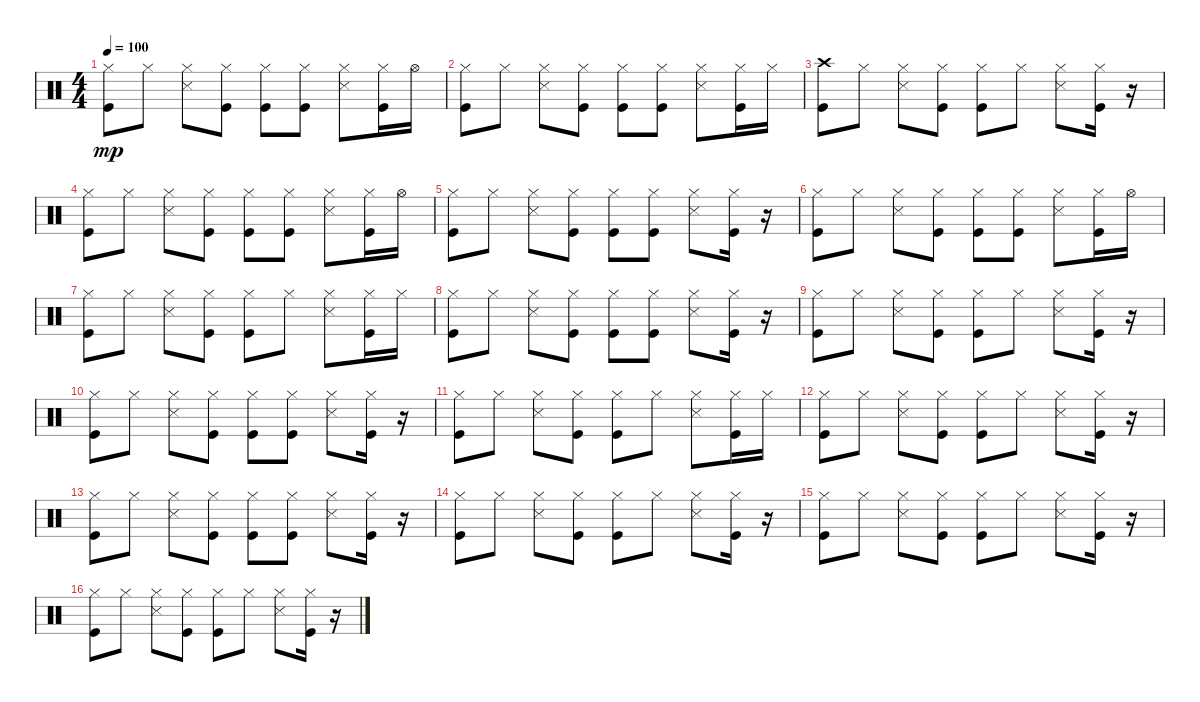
\track "" {instrument percussion}
\staff {score}
\articulation defaults
\ts (4 4)
\tempo 100
\clef neutral
\ks c
("Kick (hit)" "Hi-Hat (closed)").8{dy mp} "Hi-Hat (closed)".8 ("Snare (side stick) 3" "Hi-Hat (closed)").8 ("Kick (hit)" "Hi-Hat (closed)").8 ("Kick (hit)" "Hi-Hat (closed)").8 ("Kick (hit)" "Hi-Hat (closed)").8 ("Snare (side stick) 3" "Hi-Hat (closed)").8 ("Kick (hit)" "Hi-Hat (closed)").16 "Hi-Hat (open)".16 |
("Kick (hit)" "Hi-Hat (closed)").8 "Hi-Hat (closed)".8 ("Snare (side stick) 3" "Hi-Hat (closed)").8 ("Kick (hit)" "Hi-Hat (closed)").8 ("Kick (hit)" "Hi-Hat (closed)").8 ("Kick (hit)" "Hi-Hat (closed)").8 ("Snare (side stick) 3" "Hi-Hat (closed)").8 ("Kick (hit)" "Hi-Hat (closed)").16 "Hi-Hat (closed)".16 |
("Kick (hit)" "Crash high (hit)").8 "Hi-Hat (closed)".8 ("Snare (side stick) 3" "Hi-Hat (closed)").8 ("Kick (hit)" "Hi-Hat (closed)").8 ("Kick (hit)" "Hi-Hat (closed)").8 "Hi-Hat (closed)".8 ("Snare (side stick) 3" "Hi-Hat (closed)").8 ("Kick (hit)" "Hi-Hat (closed)").16 r.16 |
("Kick (hit)" "Hi-Hat (closed)").8 "Hi-Hat (closed)".8 ("Snare (side stick) 3" "Hi-Hat (closed)").8 ("Kick (hit)" "Hi-Hat (closed)").8 ("Kick (hit)" "Hi-Hat (closed)").8 ("Kick (hit)" "Hi-Hat (closed)").8 ("Snare (side stick) 3" "Hi-Hat (closed)").8 ("Kick (hit)" "Hi-Hat (closed)").16 "Hi-Hat (open)".16 |
("Kick (hit)" "Hi-Hat (closed)").8 "Hi-Hat (closed)".8 ("Snare (side stick) 3" "Hi-Hat (closed)").8 ("Kick (hit)" "Hi-Hat (closed)").8 ("Kick (hit)" "Hi-Hat (closed)").8 ("Kick (hit)" "Hi-Hat (closed)").8 ("Snare (side stick) 3" "Hi-Hat (closed)").8 ("Kick (hit)" "Hi-Hat (closed)").16 r.16 |
("Kick (hit)" "Hi-Hat (closed)").8 "Hi-Hat (closed)".8 ("Snare (side stick) 3" "Hi-Hat (closed)").8 ("Kick (hit)" "Hi-Hat (closed)").8 ("Kick (hit)" "Hi-Hat (closed)").8 ("Kick (hit)" "Hi-Hat (closed)").8 ("Snare (side stick) 3" "Hi-Hat (closed)").8 ("Kick (hit)" "Hi-Hat (closed)").16 "Hi-Hat (open)".16 |
("Kick (hit)" "Hi-Hat (closed)").8 "Hi-Hat (closed)".8 ("Snare (side stick) 3" "Hi-Hat (closed)").8 ("Kick (hit)" "Hi-Hat (closed)").8 ("Kick (hit)" "Hi-Hat (closed)").8 "Hi-Hat (closed)".8 ("Snare (side stick) 3" "Hi-Hat (closed)").8 ("Kick (hit)" "Hi-Hat (closed)").16 "Hi-Hat (closed)".16 |
("Kick (hit)" "Hi-Hat (closed)").8 "Hi-Hat (closed)".8 ("Snare (side stick) 3" "Hi-Hat (closed)").8 ("Kick (hit)" "Hi-Hat (closed)").8 ("Kick (hit)" "Hi-Hat (closed)").8 ("Kick (hit)" "Hi-Hat (closed)").8 ("Snare (side stick) 3" "Hi-Hat (closed)").8 ("Kick (hit)" "Hi-Hat (closed)").16 r.16 |
("Kick (hit)" "Hi-Hat (closed)").8 "Hi-Hat (closed)".8 ("Snare (side stick) 3" "Hi-Hat (closed)").8 ("Kick (hit)" "Hi-Hat (closed)").8 ("Kick (hit)" "Hi-Hat (closed)").8 "Hi-Hat (closed)".8 ("Snare (side stick) 3" "Hi-Hat (closed)").8 ("Kick (hit)" "Hi-Hat (closed)").16 r.16 |
("Kick (hit)" "Hi-Hat (closed)").8 "Hi-Hat (closed)".8 ("Snare (side stick) 3" "Hi-Hat (closed)").8 ("Kick (hit)" "Hi-Hat (closed)").8 ("Kick (hit)" "Hi-Hat (closed)").8 ("Kick (hit)" "Hi-Hat (closed)").8 ("Snare (side stick) 3" "Hi-Hat (closed)").8 ("Kick (hit)" "Hi-Hat (closed)").16 r.16 |
("Kick (hit)" "Hi-Hat (closed)").8 "Hi-Hat (closed)".8 ("Snare (side stick) 3" "Hi-Hat (closed)").8 ("Kick (hit)" "Hi-Hat (closed)").8 ("Kick (hit)" "Hi-Hat (closed)").8 "Hi-Hat (closed)".8 ("Snare (side stick) 3" "Hi-Hat (closed)").8 ("Kick (hit)" "Hi-Hat (closed)").16 "Hi-Hat (closed)".16 |
("Kick (hit)" "Hi-Hat (closed)").8 "Hi-Hat (closed)".8 ("Snare (side stick) 3" "Hi-Hat (closed)").8 ("Kick (hit)" "Hi-Hat (closed)").8 ("Kick (hit)" "Hi-Hat (closed)").8 "Hi-Hat (closed)".8 ("Snare (side stick) 3" "Hi-Hat (closed)").8 ("Kick (hit)" "Hi-Hat (closed)").16 r.16 |
("Kick (hit)" "Hi-Hat (closed)").8 "Hi-Hat (closed)".8 ("Snare (side stick) 3" "Hi-Hat (closed)").8 ("Kick (hit)" "Hi-Hat (closed)").8 ("Kick (hit)" "Hi-Hat (closed)").8 ("Kick (hit)" "Hi-Hat (closed)").8 ("Snare (side stick) 3" "Hi-Hat (closed)").8 ("Kick (hit)" "Hi-Hat (closed)").16 r.16 |
("Kick (hit)" "Hi-Hat (closed)").8 "Hi-Hat (closed)".8 ("Snare (side stick) 3" "Hi-Hat (closed)").8 ("Kick (hit)" "Hi-Hat (closed)").8 ("Kick (hit)" "Hi-Hat (closed)").8 "Hi-Hat (closed)".8 ("Snare (side stick) 3" "Hi-Hat (closed)").8 ("Kick (hit)" "Hi-Hat (closed)").16 r.16 |
("Kick (hit)" "Hi-Hat (closed)").8 "Hi-Hat (closed)".8 ("Snare (side stick) 3" "Hi-Hat (closed)").8 ("Kick (hit)" "Hi-Hat (closed)").8 ("Kick (hit)" "Hi-Hat (closed)").8 "Hi-Hat (closed)".8 ("Snare (side stick) 3" "Hi-Hat (closed)").8 ("Kick (hit)" "Hi-Hat (closed)").16 r.16 |
("Kick (hit)" "Hi-Hat (closed)").8 "Hi-Hat (closed)".8 ("Snare (side stick) 3" "Hi-Hat (closed)").8 ("Kick (hit)" "Hi-Hat (closed)").8 ("Kick (hit)" "Hi-Hat (closed)").8 "Hi-Hat (closed)".8 ("Snare (side stick) 3" "Hi-Hat (closed)").8 ("Kick (hit)" "Hi-Hat (closed)").16 r.16
